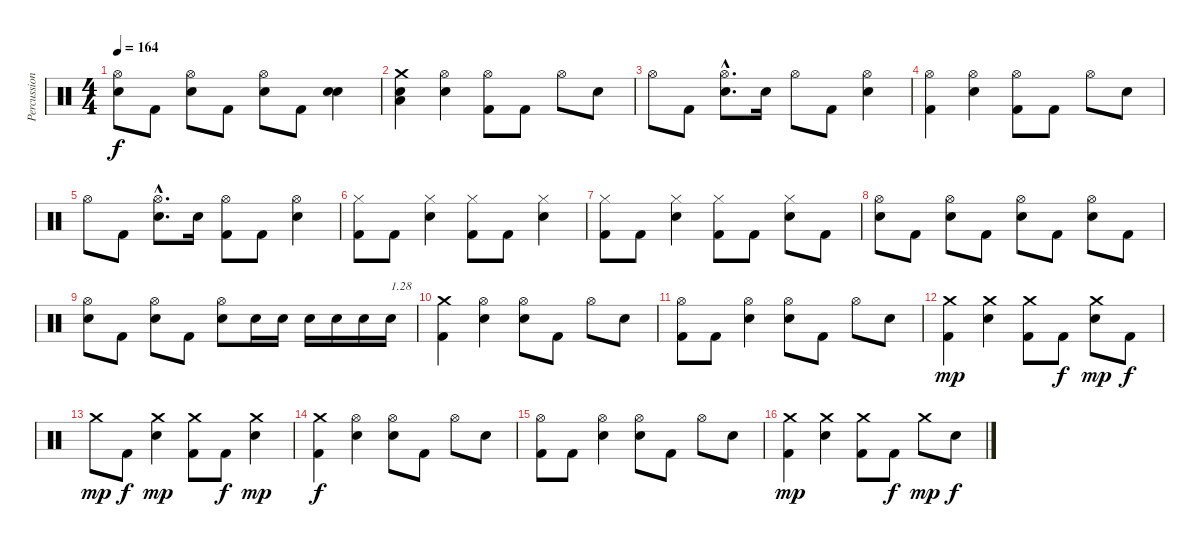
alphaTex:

\track ("Percussions" "Percussion") {instrument percussion}
\staff {score}
\articulation defaults
\ts (4 4)
\tempo 164
\clef neutral
\ks c
("Snare (hit) 2" "Hi-Hat (open)").8{dy f} "Kick (hit) 2".8 ("Snare (hit) 2" "Hi-Hat (open)").8 "Kick (hit) 2".8 ("Snare (hit) 2" "Hi-Hat (open)").8 "Kick (hit) 2".8 ("Electric Snare (hit)" "Snare (hit) 2").4 |
("Snare (hit) 2" "Low Tom (hit)" "Crash medium (hit)").4 ("Snare (hit) 2" "Hi-Hat (open)").4 ("Kick (hit) 2" "Hi-Hat (open)").8 "Kick (hit) 2".8 "Hi-Hat (open)".8 "Snare (hit) 2".8 |
"Hi-Hat (open)".8 "Kick (hit) 2".8 ("Snare (hit) 2"{hac} "Hi-Hat (open)"{hac}).8{d} "Snare (hit) 2".16 "Hi-Hat (open)".8 "Kick (hit) 2".8 ("Snare (hit) 2" "Hi-Hat (open)").4 |
("Kick (hit) 2" "Hi-Hat (open)").4 ("Snare (hit) 2" "Hi-Hat (open)").4 ("Kick (hit) 2" "Hi-Hat (open)").8 "Kick (hit) 2".8 "Hi-Hat (open)".8 "Snare (hit) 2".8 |
"Hi-Hat (open)".8 "Kick (hit) 2".8 ("Snare (hit) 2"{hac} "Hi-Hat (open)"{hac}).8{d} "Snare (hit) 2".16 ("Kick (hit) 2" "Hi-Hat (open)").8 "Kick (hit) 2".8 ("Snare (hit) 2" "Hi-Hat (open)").4 |
("Kick (hit) 2" "Hi-Hat (closed)").8 "Kick (hit) 2".8 ("Snare (hit) 2" "Hi-Hat (closed)").4 ("Kick (hit) 2" "Hi-Hat (closed)").8 "Kick (hit) 2".8 ("Snare (hit) 2" "Hi-Hat (closed)").4 |
("Kick (hit) 2" "Hi-Hat (closed)").8 "Kick (hit) 2".8 ("Snare (hit) 2" "Hi-Hat (closed)").4 ("Kick (hit) 2" "Hi-Hat (closed)").8 "Kick (hit) 2".8 ("Snare (hit) 2" "Hi-Hat (closed)").8 "Kick (hit) 2".8 |
("Snare (hit) 2" "Hi-Hat (open)").8 "Kick (hit) 2".8 ("Snare (hit) 2" "Hi-Hat (open)").8 "Kick (hit) 2".8 ("Snare (hit) 2" "Hi-Hat (open)").8 "Kick (hit) 2".8 ("Snare (hit) 2" "Hi-Hat (open)").8 "Kick (hit) 2".8 |
("Snare (hit) 2" "Hi-Hat (open)").8 "Kick (hit) 2".8 ("Snare (hit) 2" "Hi-Hat (open)").8 "Kick (hit) 2".8 ("Snare (hit) 2" "Hi-Hat (open)").8 "Snare (hit) 2".16 "Snare (hit) 2".16 "Snare (hit) 2".16 "Snare (hit) 2".16 "Snare (hit) 2".16 "Snare (hit) 2".16{txt "1.28"} |
("Kick (hit) 2" "Crash medium (hit)").4 ("Snare (hit) 2" "Hi-Hat (open)").4 ("Snare (hit) 2" "Hi-Hat (open)").8 "Kick (hit) 2".8 "Hi-Hat (open)".8 "Snare (hit) 2".8 |
("Kick (hit) 2" "Hi-Hat (open)").8 "Kick (hit) 2".8 ("Snare (hit) 2" "Hi-Hat (open)").4 ("Snare (hit) 2" "Hi-Hat (open)").8 "Kick (hit) 2".8 "Hi-Hat (open)".8 "Snare (hit) 2".8 |
("Kick (hit) 2" "Crash medium (hit)").4{dy mp} ("Snare (hit) 2" "Crash medium (hit)").4 ("Kick (hit) 2" "Crash medium (hit)").8 "Kick (hit) 2".8{dy f} ("Snare (hit) 2" "Crash medium (hit)").8{dy mp} "Kick (hit) 2".8{dy f} |
"Crash medium (hit)".8{dy mp} "Kick (hit) 2".8{dy f} ("Snare (hit) 2" "Crash medium (hit)").4{dy mp} ("Kick (hit) 2" "Crash medium (hit)").8 "Kick (hit) 2".8{dy f} ("Snare (hit) 2" "Crash medium (hit)").4{dy mp} |
("Kick (hit) 2" "Crash medium (hit)").4{dy f} ("Snare (hit) 2" "Hi-Hat (open)").4 ("Snare (hit) 2" "Hi-Hat (open)").8 "Kick (hit) 2".8 "Hi-Hat (open)".8 "Snare (hit) 2".8 |
("Kick (hit) 2" "Hi-Hat (open)").8 "Kick (hit) 2".8 ("Snare (hit) 2" "Hi-Hat (open)").4 ("Snare (hit) 2" "Hi-Hat (open)").8 "Kick (hit) 2".8 "Hi-Hat (open)".8 "Snare (hit) 2".8 |
("Kick (hit) 2" "Crash medium (hit)").4{dy mp} ("Snare (hit) 2" "Crash medium (hit)").4 ("Kick (hit) 2" "Crash medium (hit)").8 "Kick (hit) 2".8{dy f} "Crash medium (hit)".8{dy mp} "Snare (hit) 2".8{dy f}
